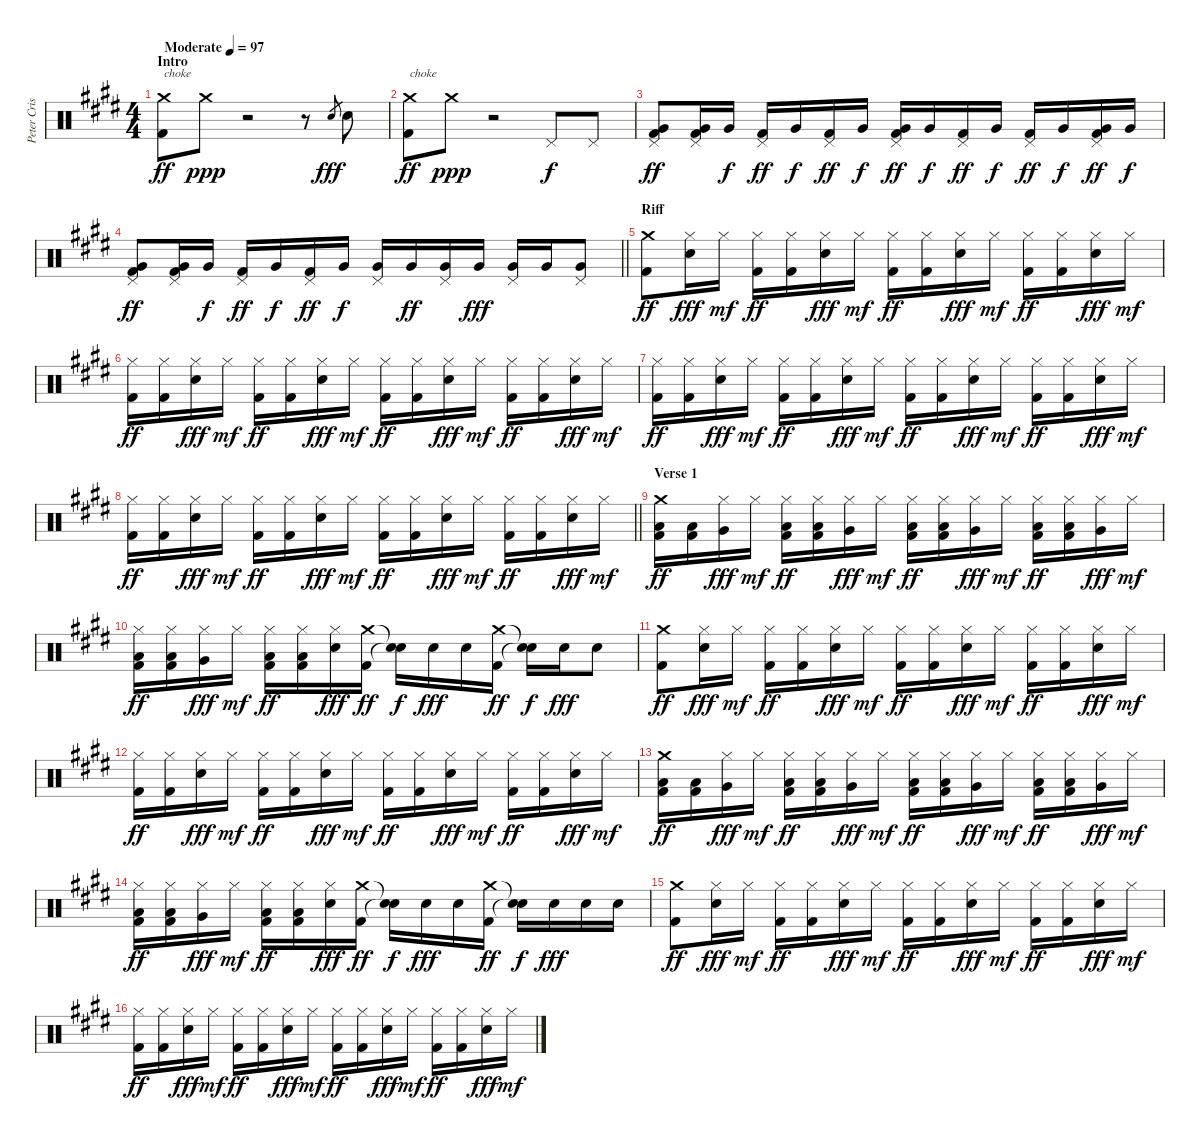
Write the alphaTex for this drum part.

\track ("Peter Criss" "Peter Cris") {instrument percussion}
\staff {score}
\articulation defaults
\ts (4 4)
\section ("" "Intro")
\tempo (97 "Moderate")
\clef neutral
\ks c#minor
("Crash medium (hit)" "Kick (hit) 2").8{txt "choke" dy ff} "Crash medium (hit)".8{dy ppp} r.2 r.8 "Snare (hit) 2".8{gr dy fff} "Snare (hit) 2".8 |
("Crash medium (hit)" "Kick (hit) 2").8{txt "choke" dy ff} "Crash medium (hit)".8{dy ppp} r.2 "Pedal Hi-Hat (hit)".8{dy f} "Pedal Hi-Hat (hit)".8 |
("Very Low Tom (hit)" "Pedal Hi-Hat (hit)" "Kick (hit) 2").8{dy ff} ("Very Low Tom (hit)" "Pedal Hi-Hat (hit)" "Kick (hit) 2").16 "Very Low Tom (hit)".16{dy f} ("Pedal Hi-Hat (hit)" "Kick (hit) 2").16{dy ff} "Very Low Tom (hit)".16{dy f} ("Pedal Hi-Hat (hit)" "Kick (hit) 2").16{dy ff} "Very Low Tom (hit)".16{dy f} ("Very Low Tom (hit)" "Pedal Hi-Hat (hit)" "Kick (hit) 2").16{dy ff} "Very Low Tom (hit)".16{dy f} ("Pedal Hi-Hat (hit)" "Kick (hit) 2").16{dy ff} "Very Low Tom (hit)".16{dy f} ("Pedal Hi-Hat (hit)" "Kick (hit) 2").16{dy ff} "Very Low Tom (hit)".16{dy f} ("Very Low Tom (hit)" "Pedal Hi-Hat (hit)" "Kick (hit) 2").16{dy ff} "Very Low Tom (hit)".16{dy f} |
\barLineRight lightlight
("Very Low Tom (hit)" "Pedal Hi-Hat (hit)" "Kick (hit) 2").8{dy ff} ("Very Low Tom (hit)" "Pedal Hi-Hat (hit)" "Kick (hit) 2").16 "Very Low Tom (hit)".16{dy f} ("Pedal Hi-Hat (hit)" "Kick (hit) 2").16{dy ff} "Very Low Tom (hit)".16{dy f} ("Pedal Hi-Hat (hit)" "Kick (hit) 2").16{dy ff} "Very Low Tom (hit)".16{dy f} ("Very Low Tom (hit)" "Pedal Hi-Hat (hit)").16 "Very Low Tom (hit)".16{dy ff} ("Very Low Tom (hit)" "Pedal Hi-Hat (hit)").16 "Very Low Tom (hit)".16{dy fff} ("Very Low Tom (hit)" "Pedal Hi-Hat (hit)").16 "Very Low Tom (hit)".16 ("Very Low Tom (hit)" "Pedal Hi-Hat (hit)").8 |
\section ("" "Riff")
("Crash medium (hit)" "Kick (hit) 2").8{dy ff} ("Hi-Hat (closed)" "Snare (hit) 2").16{dy fff} "Hi-Hat (closed)".16{dy mf} ("Hi-Hat (closed)" "Kick (hit) 2").16{dy ff} ("Hi-Hat (closed)" "Kick (hit) 2").16 ("Hi-Hat (closed)" "Snare (hit) 2").16{dy fff} "Hi-Hat (closed)".16{dy mf} ("Hi-Hat (closed)" "Kick (hit) 2").16{dy ff} ("Hi-Hat (closed)" "Kick (hit) 2").16 ("Hi-Hat (closed)" "Snare (hit) 2").16{dy fff} "Hi-Hat (closed)".16{dy mf} ("Hi-Hat (closed)" "Kick (hit) 2").16{dy ff} ("Hi-Hat (closed)" "Kick (hit) 2").16 ("Hi-Hat (closed)" "Snare (hit) 2").16{dy fff} "Hi-Hat (closed)".16{dy mf} |
("Hi-Hat (closed)" "Kick (hit) 2").16{dy ff} ("Hi-Hat (closed)" "Kick (hit) 2").16 ("Hi-Hat (closed)" "Snare (hit) 2").16{dy fff} "Hi-Hat (closed)".16{dy mf} ("Hi-Hat (closed)" "Kick (hit) 2").16{dy ff} ("Hi-Hat (closed)" "Kick (hit) 2").16 ("Hi-Hat (closed)" "Snare (hit) 2").16{dy fff} "Hi-Hat (closed)".16{dy mf} ("Hi-Hat (closed)" "Kick (hit) 2").16{dy ff} ("Hi-Hat (closed)" "Kick (hit) 2").16 ("Hi-Hat (closed)" "Snare (hit) 2").16{dy fff} "Hi-Hat (closed)".16{dy mf} ("Hi-Hat (closed)" "Kick (hit) 2").16{dy ff} ("Hi-Hat (closed)" "Kick (hit) 2").16 ("Hi-Hat (closed)" "Snare (hit) 2").16{dy fff} "Hi-Hat (closed)".16{dy mf} |
("Hi-Hat (closed)" "Kick (hit) 2").16{dy ff} ("Hi-Hat (closed)" "Kick (hit) 2").16 ("Hi-Hat (closed)" "Snare (hit) 2").16{dy fff} "Hi-Hat (closed)".16{dy mf} ("Hi-Hat (closed)" "Kick (hit) 2").16{dy ff} ("Hi-Hat (closed)" "Kick (hit) 2").16 ("Hi-Hat (closed)" "Snare (hit) 2").16{dy fff} "Hi-Hat (closed)".16{dy mf} ("Hi-Hat (closed)" "Kick (hit) 2").16{dy ff} ("Hi-Hat (closed)" "Kick (hit) 2").16 ("Hi-Hat (closed)" "Snare (hit) 2").16{dy fff} "Hi-Hat (closed)".16{dy mf} ("Hi-Hat (closed)" "Kick (hit) 2").16{dy ff} ("Hi-Hat (closed)" "Kick (hit) 2").16 ("Hi-Hat (closed)" "Snare (hit) 2").16{dy fff} "Hi-Hat (closed)".16{dy mf} |
\barLineRight lightlight
("Hi-Hat (closed)" "Kick (hit) 2").16{dy ff} ("Hi-Hat (closed)" "Kick (hit) 2").16 ("Hi-Hat (closed)" "Snare (hit) 2").16{dy fff} "Hi-Hat (closed)".16{dy mf} ("Hi-Hat (closed)" "Kick (hit) 2").16{dy ff} ("Hi-Hat (closed)" "Kick (hit) 2").16 ("Hi-Hat (closed)" "Snare (hit) 2").16{dy fff} "Hi-Hat (closed)".16{dy mf} ("Hi-Hat (closed)" "Kick (hit) 2").16{dy ff} ("Hi-Hat (closed)" "Kick (hit) 2").16 ("Hi-Hat (closed)" "Snare (hit) 2").16{dy fff} "Hi-Hat (closed)".16{dy mf} ("Hi-Hat (closed)" "Kick (hit) 2").16{dy ff} ("Hi-Hat (closed)" "Kick (hit) 2").16 ("Hi-Hat (closed)" "Snare (hit) 2").16{dy fff} "Hi-Hat (closed)".16{dy mf} |
\section ("" "Verse 1")
("Crash medium (hit)" "Low Floor Tom (hit)" "Kick (hit) 2").16{dy ff} ("Low Floor Tom (hit)" "Kick (hit) 2").16 ("Hi-Hat (closed)" "Very Low Tom (hit)").16{dy fff} "Hi-Hat (closed)".16{dy mf} ("Hi-Hat (closed)" "Low Floor Tom (hit)" "Kick (hit) 2").16{dy ff} ("Hi-Hat (closed)" "Low Floor Tom (hit)" "Kick (hit) 2").16 ("Hi-Hat (closed)" "Very Low Tom (hit)").16{dy fff} "Hi-Hat (closed)".16{dy mf} ("Hi-Hat (closed)" "Low Floor Tom (hit)" "Kick (hit) 2").16{dy ff} ("Hi-Hat (closed)" "Low Floor Tom (hit)" "Kick (hit) 2").16 ("Hi-Hat (closed)" "Very Low Tom (hit)").16{dy fff} "Hi-Hat (closed)".16{dy mf} ("Hi-Hat (closed)" "Low Floor Tom (hit)" "Kick (hit) 2").16{dy ff} ("Hi-Hat (closed)" "Low Floor Tom (hit)" "Kick (hit) 2").16 ("Hi-Hat (closed)" "Very Low Tom (hit)").16{dy fff} "Hi-Hat (closed)".16{dy mf} |
("Hi-Hat (closed)" "Low Floor Tom (hit)" "Kick (hit) 2").16{dy ff} ("Hi-Hat (closed)" "Low Floor Tom (hit)" "Kick (hit) 2").16 ("Hi-Hat (closed)" "Very Low Tom (hit)").16{dy fff} "Hi-Hat (closed)".16{dy mf} ("Hi-Hat (closed)" "Low Floor Tom (hit)" "Kick (hit) 2").16{dy ff} ("Hi-Hat (closed)" "Low Floor Tom (hit)" "Kick (hit) 2").16 ("Hi-Hat (closed)" "Snare (hit) 2").16{dy fff} ("Crash medium (hit)" "Kick (hit) 2").16{dy ff} ("Snare (hit)"{t} "Snare (hit)"{t}).16{dy f} "Snare (hit) 2".16{dy fff} "Snare (hit) 2".16 ("Crash medium (hit)" "Kick (hit) 2").16{dy ff} ("Snare (hit)"{t} "Snare (hit)"{t}).16{dy f} "Snare (hit) 2".16{dy fff} "Snare (hit) 2".8 |
("Crash medium (hit)" "Kick (hit) 2").8{dy ff} ("Hi-Hat (closed)" "Snare (hit) 2").16{dy fff} "Hi-Hat (closed)".16{dy mf} ("Hi-Hat (closed)" "Kick (hit) 2").16{dy ff} ("Hi-Hat (closed)" "Kick (hit) 2").16 ("Hi-Hat (closed)" "Snare (hit) 2").16{dy fff} "Hi-Hat (closed)".16{dy mf} ("Hi-Hat (closed)" "Kick (hit) 2").16{dy ff} ("Hi-Hat (closed)" "Kick (hit) 2").16 ("Hi-Hat (closed)" "Snare (hit) 2").16{dy fff} "Hi-Hat (closed)".16{dy mf} ("Hi-Hat (closed)" "Kick (hit) 2").16{dy ff} ("Hi-Hat (closed)" "Kick (hit) 2").16 ("Hi-Hat (closed)" "Snare (hit) 2").16{dy fff} "Hi-Hat (closed)".16{dy mf} |
("Hi-Hat (closed)" "Kick (hit) 2").16{dy ff} ("Hi-Hat (closed)" "Kick (hit) 2").16 ("Hi-Hat (closed)" "Snare (hit) 2").16{dy fff} "Hi-Hat (closed)".16{dy mf} ("Hi-Hat (closed)" "Kick (hit) 2").16{dy ff} ("Hi-Hat (closed)" "Kick (hit) 2").16 ("Hi-Hat (closed)" "Snare (hit) 2").16{dy fff} "Hi-Hat (closed)".16{dy mf} ("Hi-Hat (closed)" "Kick (hit) 2").16{dy ff} ("Hi-Hat (closed)" "Kick (hit) 2").16 ("Hi-Hat (closed)" "Snare (hit) 2").16{dy fff} "Hi-Hat (closed)".16{dy mf} ("Hi-Hat (closed)" "Kick (hit) 2").16{dy ff} ("Hi-Hat (closed)" "Kick (hit) 2").16 ("Hi-Hat (closed)" "Snare (hit) 2").16{dy fff} "Hi-Hat (closed)".16{dy mf} |
("Crash medium (hit)" "Low Floor Tom (hit)" "Kick (hit) 2").16{dy ff} ("Low Floor Tom (hit)" "Kick (hit) 2").16 ("Hi-Hat (closed)" "Very Low Tom (hit)").16{dy fff} "Hi-Hat (closed)".16{dy mf} ("Hi-Hat (closed)" "Low Floor Tom (hit)" "Kick (hit) 2").16{dy ff} ("Hi-Hat (closed)" "Low Floor Tom (hit)" "Kick (hit) 2").16 ("Hi-Hat (closed)" "Very Low Tom (hit)").16{dy fff} "Hi-Hat (closed)".16{dy mf} ("Hi-Hat (closed)" "Low Floor Tom (hit)" "Kick (hit) 2").16{dy ff} ("Hi-Hat (closed)" "Low Floor Tom (hit)" "Kick (hit) 2").16 ("Hi-Hat (closed)" "Very Low Tom (hit)").16{dy fff} "Hi-Hat (closed)".16{dy mf} ("Hi-Hat (closed)" "Low Floor Tom (hit)" "Kick (hit) 2").16{dy ff} ("Hi-Hat (closed)" "Low Floor Tom (hit)" "Kick (hit) 2").16 ("Hi-Hat (closed)" "Very Low Tom (hit)").16{dy fff} "Hi-Hat (closed)".16{dy mf} |
("Hi-Hat (closed)" "Low Floor Tom (hit)" "Kick (hit) 2").16{dy ff} ("Hi-Hat (closed)" "Low Floor Tom (hit)" "Kick (hit) 2").16 ("Hi-Hat (closed)" "Very Low Tom (hit)").16{dy fff} "Hi-Hat (closed)".16{dy mf} ("Hi-Hat (closed)" "Low Floor Tom (hit)" "Kick (hit) 2").16{dy ff} ("Hi-Hat (closed)" "Low Floor Tom (hit)" "Kick (hit) 2").16 ("Hi-Hat (closed)" "Snare (hit) 2").16{dy fff} ("Crash medium (hit)" "Kick (hit) 2").16{dy ff} ("Snare (hit)"{t} "Snare (hit)"{t}).16{dy f} "Snare (hit) 2".16{dy fff} "Snare (hit) 2".16 ("Crash medium (hit)" "Kick (hit) 2").16{dy ff} ("Snare (hit)"{t} "Snare (hit)"{t}).16{dy f} "Snare (hit) 2".16{dy fff} "Snare (hit) 2".16 "Snare (hit) 2".16 |
("Crash medium (hit)" "Kick (hit) 2").8{dy ff} ("Hi-Hat (closed)" "Snare (hit) 2").16{dy fff} "Hi-Hat (closed)".16{dy mf} ("Hi-Hat (closed)" "Kick (hit) 2").16{dy ff} ("Hi-Hat (closed)" "Kick (hit) 2").16 ("Hi-Hat (closed)" "Snare (hit) 2").16{dy fff} "Hi-Hat (closed)".16{dy mf} ("Hi-Hat (closed)" "Kick (hit) 2").16{dy ff} ("Hi-Hat (closed)" "Kick (hit) 2").16 ("Hi-Hat (closed)" "Snare (hit) 2").16{dy fff} "Hi-Hat (closed)".16{dy mf} ("Hi-Hat (closed)" "Kick (hit) 2").16{dy ff} ("Hi-Hat (closed)" "Kick (hit) 2").16 ("Hi-Hat (closed)" "Snare (hit) 2").16{dy fff} "Hi-Hat (closed)".16{dy mf} |
("Hi-Hat (closed)" "Kick (hit) 2").16{dy ff} ("Hi-Hat (closed)" "Kick (hit) 2").16 ("Hi-Hat (closed)" "Snare (hit) 2").16{dy fff} "Hi-Hat (closed)".16{dy mf} ("Hi-Hat (closed)" "Kick (hit) 2").16{dy ff} ("Hi-Hat (closed)" "Kick (hit) 2").16 ("Hi-Hat (closed)" "Snare (hit) 2").16{dy fff} "Hi-Hat (closed)".16{dy mf} ("Hi-Hat (closed)" "Kick (hit) 2").16{dy ff} ("Hi-Hat (closed)" "Kick (hit) 2").16 ("Hi-Hat (closed)" "Snare (hit) 2").16{dy fff} "Hi-Hat (closed)".16{dy mf} ("Hi-Hat (closed)" "Kick (hit) 2").16{dy ff} ("Hi-Hat (closed)" "Kick (hit) 2").16 ("Hi-Hat (closed)" "Snare (hit) 2").16{dy fff} "Hi-Hat (closed)".16{dy mf}
